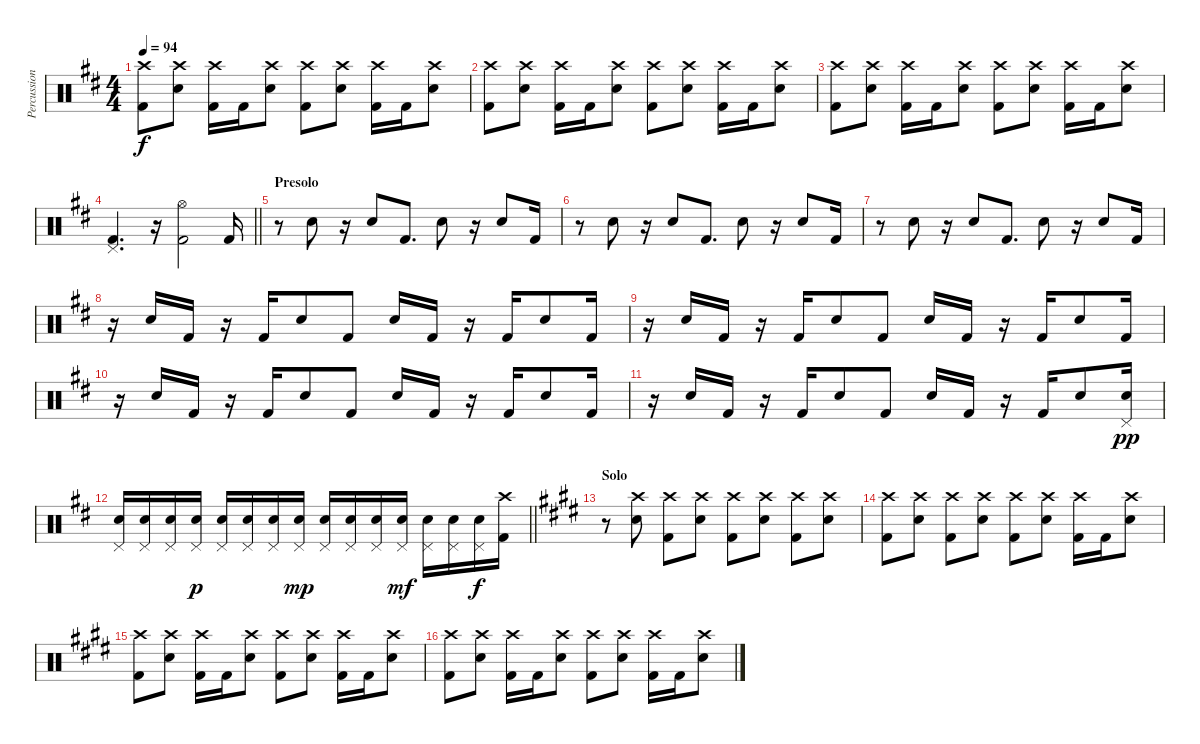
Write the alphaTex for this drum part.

\track ("Percussion" "Percussion") {instrument percussion}
\staff {score}
\articulation defaults
\ts (4 4)
\tempo 94
\clef neutral
\ks bminor
("Crash high (hit)" "Kick (hit) 2").8{dy f} ("Crash high (hit)" "Electric Snare (hit)").8 ("Crash high (hit)" "Kick (hit) 2").16 "Kick (hit) 2".16 ("Crash high (hit)" "Electric Snare (hit)").8 ("Crash high (hit)" "Kick (hit) 2").8 ("Crash high (hit)" "Electric Snare (hit)").8 ("Crash high (hit)" "Kick (hit) 2").16 "Kick (hit) 2".16 ("Crash high (hit)" "Electric Snare (hit)").8 |
("Crash high (hit)" "Kick (hit) 2").8 ("Crash high (hit)" "Electric Snare (hit)").8 ("Crash high (hit)" "Kick (hit) 2").16 "Kick (hit) 2".16 ("Crash high (hit)" "Electric Snare (hit)").8 ("Crash high (hit)" "Kick (hit) 2").8 ("Crash high (hit)" "Electric Snare (hit)").8 ("Crash high (hit)" "Kick (hit) 2").16 "Kick (hit) 2".16 ("Crash high (hit)" "Electric Snare (hit)").8 |
("Crash high (hit)" "Kick (hit) 2").8 ("Crash high (hit)" "Electric Snare (hit)").8 ("Crash high (hit)" "Kick (hit) 2").16 "Kick (hit) 2".16 ("Crash high (hit)" "Electric Snare (hit)").8 ("Crash high (hit)" "Kick (hit) 2").8 ("Crash high (hit)" "Electric Snare (hit)").8 ("Crash high (hit)" "Kick (hit) 2").16 "Kick (hit) 2".16 ("Crash high (hit)" "Electric Snare (hit)").8 |
\barLineRight lightlight
("Pedal Hi-Hat (hit)" "Kick (hit) 2").4{d} r.16 ("Hi-Hat (open)" "Kick (hit) 2").2 "Kick (hit) 2".16 |
\section ("" "Presolo")
r.8 "Electric Snare (hit)".8 r.16 "Electric Snare (hit)".8 "Kick (hit) 2".8{d} "Electric Snare (hit)".8 r.16 "Electric Snare (hit)".8 "Kick (hit) 2".16 |
r.8 "Electric Snare (hit)".8 r.16 "Electric Snare (hit)".8 "Kick (hit) 2".8{d} "Electric Snare (hit)".8 r.16 "Electric Snare (hit)".8 "Kick (hit) 2".16 |
r.8 "Electric Snare (hit)".8 r.16 "Electric Snare (hit)".8 "Kick (hit) 2".8{d} "Electric Snare (hit)".8 r.16 "Electric Snare (hit)".8 "Kick (hit) 2".16 |
r.16 "Electric Snare (hit)".16 "Kick (hit) 2".16 r.16 "Kick (hit) 2".16 "Electric Snare (hit)".8 "Kick (hit) 2".8 "Electric Snare (hit)".16 "Kick (hit) 2".16 r.16 "Kick (hit) 2".16 "Electric Snare (hit)".8 "Kick (hit) 2".16 |
r.16 "Electric Snare (hit)".16 "Kick (hit) 2".16 r.16 "Kick (hit) 2".16 "Electric Snare (hit)".8 "Kick (hit) 2".8 "Electric Snare (hit)".16 "Kick (hit) 2".16 r.16 "Kick (hit) 2".16 "Electric Snare (hit)".8 "Kick (hit) 2".16 |
r.16 "Electric Snare (hit)".16 "Kick (hit) 2".16 r.16 "Kick (hit) 2".16 "Electric Snare (hit)".8 "Kick (hit) 2".8 "Electric Snare (hit)".16 "Kick (hit) 2".16 r.16 "Kick (hit) 2".16 "Electric Snare (hit)".8 "Kick (hit) 2".16 |
r.16 "Electric Snare (hit)".16 "Kick (hit) 2".16 r.16 "Kick (hit) 2".16 "Electric Snare (hit)".8 "Kick (hit) 2".8 "Electric Snare (hit)".16 "Kick (hit) 2".16 r.16 "Kick (hit) 2".16 "Electric Snare (hit)".8 ("Pedal Hi-Hat (hit)" "Electric Snare (hit)").16{dy pp} |
\barLineRight lightlight
("Pedal Hi-Hat (hit)" "Electric Snare (hit)").16 ("Pedal Hi-Hat (hit)" "Electric Snare (hit)").16 ("Pedal Hi-Hat (hit)" "Electric Snare (hit)").16 ("Pedal Hi-Hat (hit)" "Electric Snare (hit)").16{dy p} ("Pedal Hi-Hat (hit)" "Electric Snare (hit)").16 ("Pedal Hi-Hat (hit)" "Electric Snare (hit)").16 ("Pedal Hi-Hat (hit)" "Electric Snare (hit)").16 ("Pedal Hi-Hat (hit)" "Electric Snare (hit)").16{dy mp} ("Pedal Hi-Hat (hit)" "Electric Snare (hit)").16 ("Pedal Hi-Hat (hit)" "Electric Snare (hit)").16 ("Pedal Hi-Hat (hit)" "Electric Snare (hit)").16 ("Pedal Hi-Hat (hit)" "Electric Snare (hit)").16{dy mf} ("Pedal Hi-Hat (hit)" "Electric Snare (hit)").16 ("Pedal Hi-Hat (hit)" "Electric Snare (hit)").16 ("Pedal Hi-Hat (hit)" "Electric Snare (hit)").16{dy f} ("Crash high (hit)" "Kick (hit) 2").16 |
\section ("" "Solo")
\ks c#minor
r.8 ("Crash high (hit)" "Electric Snare (hit)").8 ("Crash high (hit)" "Kick (hit) 2").8 ("Crash high (hit)" "Electric Snare (hit)").8 ("Crash high (hit)" "Kick (hit) 2").8 ("Crash high (hit)" "Electric Snare (hit)").8 ("Crash high (hit)" "Kick (hit) 2").8 ("Crash high (hit)" "Electric Snare (hit)").8 |
("Crash high (hit)" "Kick (hit) 2").8 ("Crash high (hit)" "Electric Snare (hit)").8 ("Crash high (hit)" "Kick (hit) 2").8 ("Crash high (hit)" "Electric Snare (hit)").8 ("Crash high (hit)" "Kick (hit) 2").8 ("Crash high (hit)" "Electric Snare (hit)").8 ("Crash high (hit)" "Kick (hit) 2").16 "Kick (hit) 2".16 ("Crash high (hit)" "Electric Snare (hit)").8 |
("Crash high (hit)" "Kick (hit) 2").8 ("Crash high (hit)" "Electric Snare (hit)").8 ("Crash high (hit)" "Kick (hit) 2").16 "Kick (hit) 2".16 ("Crash high (hit)" "Electric Snare (hit)").8 ("Crash high (hit)" "Kick (hit) 2").8 ("Crash high (hit)" "Electric Snare (hit)").8 ("Crash high (hit)" "Kick (hit) 2").16 "Kick (hit) 2".16 ("Crash high (hit)" "Electric Snare (hit)").8 |
("Crash high (hit)" "Kick (hit) 2").8 ("Crash high (hit)" "Electric Snare (hit)").8 ("Crash high (hit)" "Kick (hit) 2").16 "Kick (hit) 2".16 ("Crash high (hit)" "Electric Snare (hit)").8 ("Crash high (hit)" "Kick (hit) 2").8 ("Crash high (hit)" "Electric Snare (hit)").8 ("Crash high (hit)" "Kick (hit) 2").16 "Kick (hit) 2".16 ("Crash high (hit)" "Electric Snare (hit)").8
